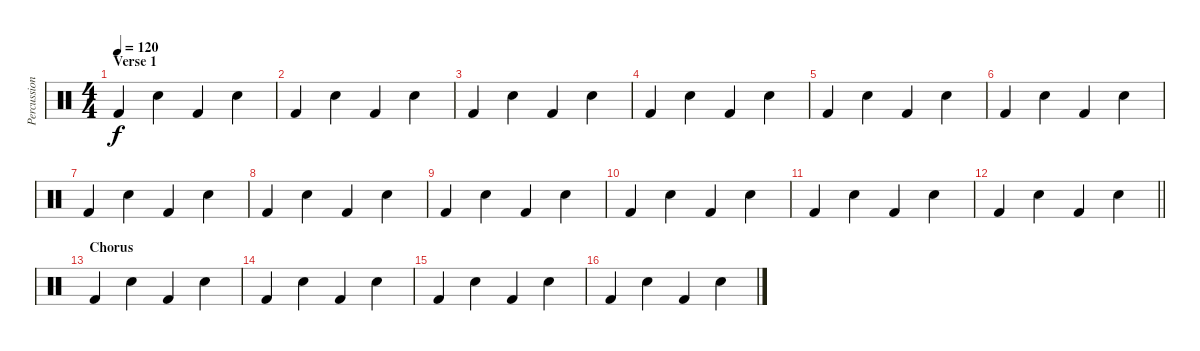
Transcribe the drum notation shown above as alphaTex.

\track ("Percussion" "Percussion") {instrument percussion}
\staff {score}
\articulation defaults
\ts (4 4)
\section ("" "Verse 1")
\tempo 120
\clef neutral
\ks c "Kick (hit) 2".4{dy f} "Snare (hit) 2".4 "Kick (hit) 2".4 "Snare (hit) 2".4
|
"Kick (hit) 2".4 "Snare (hit) 2".4 "Kick (hit) 2".4 "Snare (hit) 2".4 |
"Kick (hit) 2".4 "Snare (hit) 2".4 "Kick (hit) 2".4 "Snare (hit) 2".4 |
"Kick (hit) 2".4 "Snare (hit) 2".4 "Kick (hit) 2".4 "Snare (hit) 2".4 |
"Kick (hit) 2".4 "Snare (hit) 2".4 "Kick (hit) 2".4 "Snare (hit) 2".4 |
"Kick (hit) 2".4 "Snare (hit) 2".4 "Kick (hit) 2".4 "Snare (hit) 2".4 |
"Kick (hit) 2".4 "Snare (hit) 2".4 "Kick (hit) 2".4 "Snare (hit) 2".4 |
"Kick (hit) 2".4 "Snare (hit) 2".4 "Kick (hit) 2".4 "Snare (hit) 2".4 |
"Kick (hit) 2".4 "Snare (hit) 2".4 "Kick (hit) 2".4 "Snare (hit) 2".4 |
"Kick (hit) 2".4 "Snare (hit) 2".4 "Kick (hit) 2".4 "Snare (hit) 2".4 |
"Kick (hit) 2".4 "Snare (hit) 2".4 "Kick (hit) 2".4 "Snare (hit) 2".4 |
\barLineRight lightlight "Kick (hit) 2".4 "Snare (hit) 2".4 "Kick (hit) 2".4 "Snare (hit) 2".4
|
\section ("" "Chorus")
"Kick (hit) 2".4 "Snare (hit) 2".4 "Kick (hit) 2".4 "Snare (hit) 2".4 |
"Kick (hit) 2".4 "Snare (hit) 2".4 "Kick (hit) 2".4 "Snare (hit) 2".4 |
"Kick (hit) 2".4 "Snare (hit) 2".4 "Kick (hit) 2".4 "Snare (hit) 2".4 |
"Kick (hit) 2".4 "Snare (hit) 2".4 "Kick (hit) 2".4 "Snare (hit) 2".4
